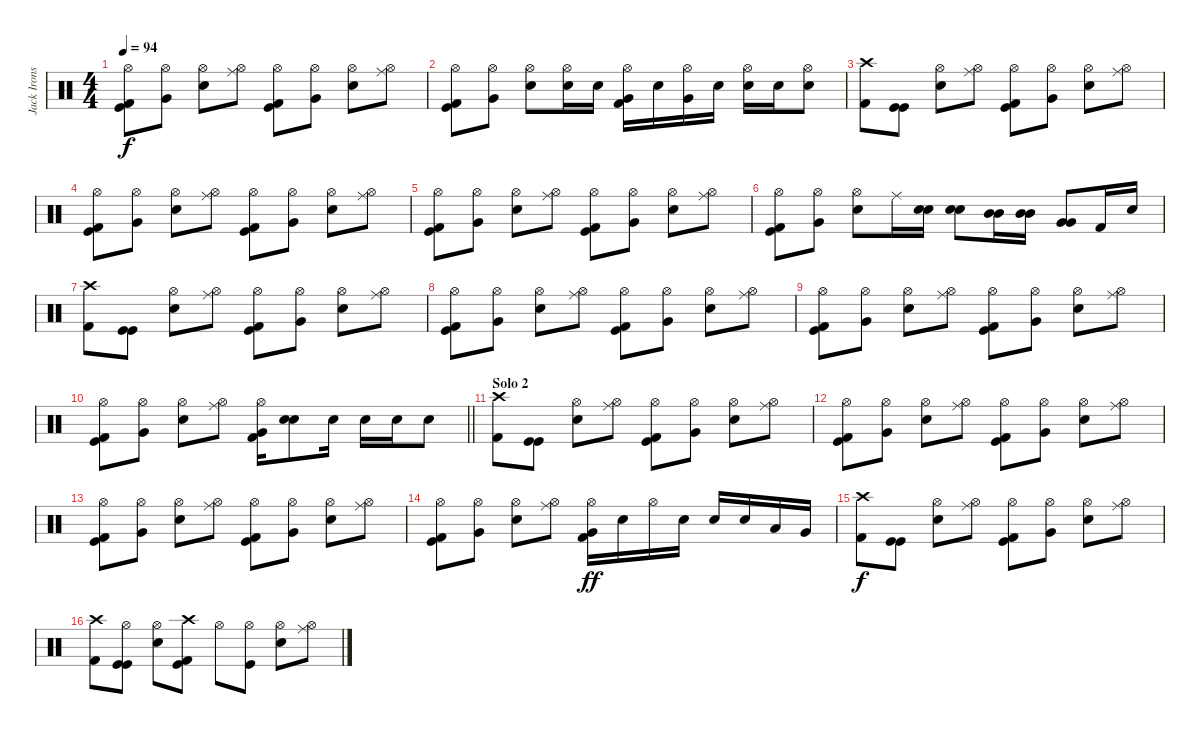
\track ("Jack Irons" "Jack Irons") {instrument percussion}
\staff {score}
\articulation defaults
\ts (4 4)
\tempo 94
\clef neutral
\ks c
("Hi-Hat (open)" "Kick (hit)" "Kick (hit) 2").8{dy f} ("Hi-Hat (open)" "Very Low Tom (hit)").8 ("Hi-Hat (open)" "Electric Snare (hit)").8 ("Hi-Hat (open)" "Ride (middle)").8 ("Hi-Hat (open)" "Kick (hit)" "Kick (hit) 2").8 ("Hi-Hat (open)" "Very Low Tom (hit)").8 ("Hi-Hat (open)" "Electric Snare (hit)").8 ("Hi-Hat (open)" "Ride (middle)").8 |
("Hi-Hat (open)" "Kick (hit)" "Kick (hit) 2").8 ("Hi-Hat (open)" "Very Low Tom (hit)").8 ("Hi-Hat (open)" "Electric Snare (hit)").8 ("Hi-Hat (open)" "Electric Snare (hit)").16 "Electric Snare (hit)".16 ("Hi-Hat (open)" "Very Low Tom (hit)" "Kick (hit) 2").16 "Electric Snare (hit)".16 ("Hi-Hat (open)" "Very Low Tom (hit)").16 "Electric Snare (hit)".16 ("Hi-Hat (open)" "Electric Snare (hit)").16 "Electric Snare (hit)".16 ("Hi-Hat (open)" "Electric Snare (hit)").8 |
("Crash high (hit)" "Kick (hit) 2").8 ("Kick (hit)" "Kick (hit)").8 ("Hi-Hat (open)" "Electric Snare (hit)").8 ("Hi-Hat (open)" "Ride (middle)").8 ("Hi-Hat (open)" "Kick (hit)" "Kick (hit) 2").8 ("Hi-Hat (open)" "Very Low Tom (hit)").8 ("Hi-Hat (open)" "Electric Snare (hit)").8 ("Hi-Hat (open)" "Ride (middle)").8 |
("Hi-Hat (open)" "Kick (hit)" "Kick (hit) 2").8 ("Hi-Hat (open)" "Very Low Tom (hit)").8 ("Hi-Hat (open)" "Electric Snare (hit)").8 ("Hi-Hat (open)" "Ride (middle)").8 ("Hi-Hat (open)" "Kick (hit)" "Kick (hit) 2").8 ("Hi-Hat (open)" "Very Low Tom (hit)").8 ("Hi-Hat (open)" "Electric Snare (hit)").8 ("Hi-Hat (open)" "Ride (middle)").8 |
("Hi-Hat (open)" "Kick (hit)" "Kick (hit) 2").8 ("Hi-Hat (open)" "Very Low Tom (hit)").8 ("Hi-Hat (open)" "Electric Snare (hit)").8 ("Hi-Hat (open)" "Ride (middle)").8 ("Hi-Hat (open)" "Kick (hit)" "Kick (hit) 2").8 ("Hi-Hat (open)" "Very Low Tom (hit)").8 ("Hi-Hat (open)" "Electric Snare (hit)").8 ("Hi-Hat (open)" "Ride (middle)").8 |
("Hi-Hat (open)" "Kick (hit)" "Kick (hit) 2").8 ("Hi-Hat (open)" "Very Low Tom (hit)").8 ("Hi-Hat (open)" "Electric Snare (hit)").8 "Ride (middle)".16 ("Electric Snare (hit)" "Electric Snare (hit)").16 ("Electric Snare (hit)" "Electric Snare (hit)").8 ("Mid Tom (hit)" "Mid Tom (hit)").16 ("Mid Tom (hit)" "Mid Tom (hit)").16 ("Very Low Tom (hit)" "Very Low Tom (hit)").8 "Kick (hit) 2".16 "Electric Snare (hit)".16 |
("Crash high (hit)" "Kick (hit) 2").8 ("Kick (hit)" "Kick (hit)").8 ("Hi-Hat (open)" "Electric Snare (hit)").8 ("Hi-Hat (open)" "Ride (middle)").8 ("Hi-Hat (open)" "Kick (hit)" "Kick (hit) 2").8 ("Hi-Hat (open)" "Very Low Tom (hit)").8 ("Hi-Hat (open)" "Electric Snare (hit)").8 ("Hi-Hat (open)" "Ride (middle)").8 |
("Hi-Hat (open)" "Kick (hit)" "Kick (hit) 2").8 ("Hi-Hat (open)" "Very Low Tom (hit)").8 ("Hi-Hat (open)" "Electric Snare (hit)").8 ("Hi-Hat (open)" "Ride (middle)").8 ("Hi-Hat (open)" "Kick (hit)" "Kick (hit) 2").8 ("Hi-Hat (open)" "Very Low Tom (hit)").8 ("Hi-Hat (open)" "Electric Snare (hit)").8 ("Hi-Hat (open)" "Ride (middle)").8 |
("Hi-Hat (open)" "Kick (hit)" "Kick (hit) 2").8 ("Hi-Hat (open)" "Very Low Tom (hit)").8 ("Hi-Hat (open)" "Electric Snare (hit)").8 ("Hi-Hat (open)" "Ride (middle)").8 ("Hi-Hat (open)" "Kick (hit)" "Kick (hit) 2").8 ("Hi-Hat (open)" "Very Low Tom (hit)").8 ("Hi-Hat (open)" "Electric Snare (hit)").8 ("Hi-Hat (open)" "Ride (middle)").8 |
\barLineRight lightlight
("Hi-Hat (open)" "Kick (hit)" "Kick (hit) 2").8 ("Hi-Hat (open)" "Very Low Tom (hit)").8 ("Hi-Hat (open)" "Electric Snare (hit)").8 ("Hi-Hat (open)" "Ride (middle)").8 ("Hi-Hat (open)" "Very Low Tom (hit)" "Kick (hit) 2").16 ("Electric Snare (hit)" "Electric Snare (hit)").8 "Electric Snare (hit)".16 "Electric Snare (hit)".16 "Electric Snare (hit)".16 "Electric Snare (hit)".8 |
\section ("" "Solo 2")
("Crash high (hit)" "Kick (hit) 2").8 ("Kick (hit)" "Kick (hit)").8 ("Hi-Hat (open)" "Electric Snare (hit)").8 ("Hi-Hat (open)" "Ride (middle)").8 ("Hi-Hat (open)" "Kick (hit)" "Kick (hit) 2").8 ("Hi-Hat (open)" "Very Low Tom (hit)").8 ("Hi-Hat (open)" "Electric Snare (hit)").8 ("Hi-Hat (open)" "Ride (middle)").8 |
("Hi-Hat (open)" "Kick (hit)" "Kick (hit) 2").8 ("Hi-Hat (open)" "Very Low Tom (hit)").8 ("Hi-Hat (open)" "Electric Snare (hit)").8 ("Hi-Hat (open)" "Ride (middle)").8 ("Hi-Hat (open)" "Kick (hit)" "Kick (hit) 2").8 ("Hi-Hat (open)" "Very Low Tom (hit)").8 ("Hi-Hat (open)" "Electric Snare (hit)").8 ("Hi-Hat (open)" "Ride (middle)").8 |
("Hi-Hat (open)" "Kick (hit)" "Kick (hit) 2").8 ("Hi-Hat (open)" "Very Low Tom (hit)").8 ("Hi-Hat (open)" "Electric Snare (hit)").8 ("Hi-Hat (open)" "Ride (middle)").8 ("Hi-Hat (open)" "Kick (hit)" "Kick (hit) 2").8 ("Hi-Hat (open)" "Very Low Tom (hit)").8 ("Hi-Hat (open)" "Electric Snare (hit)").8 ("Hi-Hat (open)" "Ride (middle)").8 |
("Hi-Hat (open)" "Kick (hit)" "Kick (hit) 2").8 ("Hi-Hat (open)" "Very Low Tom (hit)").8 ("Hi-Hat (open)" "Electric Snare (hit)").8 ("Hi-Hat (open)" "Ride (middle)").8 ("Hi-Hat (open)" "Very Low Tom (hit)" "Kick (hit) 2").16{dy ff} "Electric Snare (hit)".16 "Hi-Hat (open)".16 "Electric Snare (hit)".16 "Electric Snare (hit)".16 "Electric Snare (hit)".16 "Low Tom (hit)".16 "Very Low Tom (hit)".16 |
("Crash high (hit)" "Kick (hit) 2").8{dy f} ("Kick (hit)" "Kick (hit)").8 ("Hi-Hat (open)" "Electric Snare (hit)").8 ("Hi-Hat (open)" "Ride (middle)").8 ("Hi-Hat (open)" "Kick (hit)" "Kick (hit) 2").8 ("Hi-Hat (open)" "Very Low Tom (hit)").8 ("Hi-Hat (open)" "Electric Snare (hit)").8 ("Hi-Hat (open)" "Ride (middle)").8 |
("Crash high (hit)" "Kick (hit) 2").8 ("Hi-Hat (open)" "Kick (hit)" "Kick (hit)").8 ("Hi-Hat (open)" "Electric Snare (hit)").8 ("Crash high (hit)" "Kick (hit)" "Kick (hit) 2").8 "Hi-Hat (open)".8 ("Hi-Hat (open)" "Kick (hit)").8 ("Hi-Hat (open)" "Electric Snare (hit)").8 ("Hi-Hat (open)" "Ride (middle)").8
